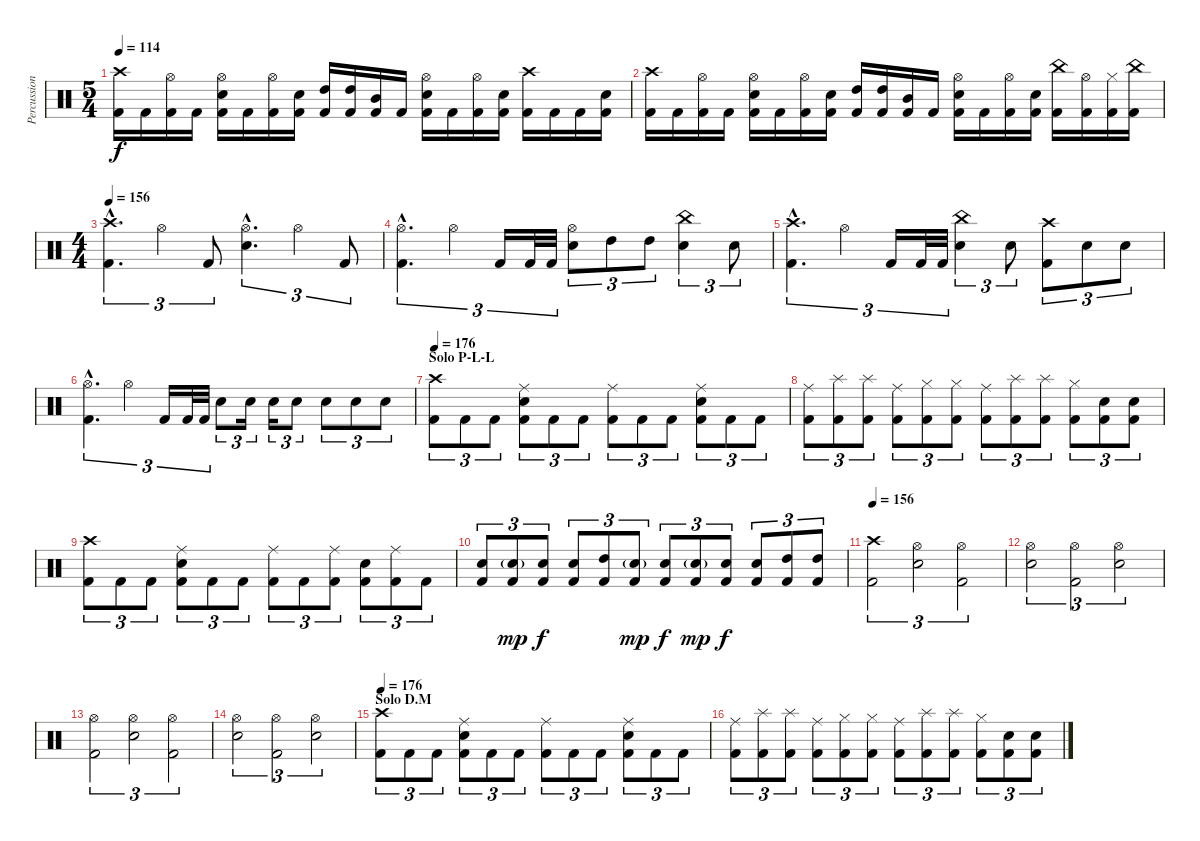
\track ("Percussion" "Percussion") {instrument percussion}
\staff {score}
\articulation defaults
\ts (5 4)
\tempo 114
\clef neutral
\ks c
("Crash high (hit)" "Kick (hit) 2").16{dy f} "Kick (hit) 2".16 ("Hi-Hat (open)" "Kick (hit) 2").16 "Kick (hit) 2".16 ("Hi-Hat (open)" "Electric Snare (hit)" "Kick (hit) 2").16 "Kick (hit) 2".16 ("Hi-Hat (open)" "Kick (hit) 2").16 ("Electric Snare (hit)" "Kick (hit) 2").16 ("High Tom (hit)" "Kick (hit) 2").16 ("High Tom (hit)" "Kick (hit) 2").16 ("Mid Tom (hit)" "Kick (hit) 2").16 "Kick (hit) 2".16 ("Hi-Hat (open)" "Electric Snare (hit)" "Kick (hit) 2").16 "Kick (hit) 2".16 ("Hi-Hat (open)" "Kick (hit) 2").16 ("Electric Snare (hit)" "Kick (hit) 2").16 ("Crash high (hit)" "Kick (hit) 2").16 "Kick (hit) 2".16 "Kick (hit) 2".16 ("Electric Snare (hit)" "Kick (hit) 2").16 |
("Crash high (hit)" "Kick (hit) 2").16 "Kick (hit) 2".16 ("Hi-Hat (open)" "Kick (hit) 2").16 "Kick (hit) 2".16 ("Hi-Hat (open)" "Electric Snare (hit)" "Kick (hit) 2").16 "Kick (hit) 2".16 ("Hi-Hat (open)" "Kick (hit) 2").16 ("Electric Snare (hit)" "Kick (hit) 2").16 ("High Tom (hit)" "Kick (hit) 2").16 ("High Tom (hit)" "Kick (hit) 2").16 ("Mid Tom (hit)" "Kick (hit) 2").16 "Kick (hit) 2".16 ("Hi-Hat (open)" "Electric Snare (hit)" "Kick (hit) 2").16 "Kick (hit) 2".16 ("Hi-Hat (open)" "Kick (hit) 2").16 ("Electric Snare (hit)" "Kick (hit) 2").16 ("China (hit)" "Kick (hit) 2").16 ("Hi-Hat (open)" "Kick (hit) 2").16 ("Hi-Hat (closed)" "Kick (hit) 2").16 ("China (hit)" "Kick (hit) 2").16 |
\ts (4 4)
\tempo 156
("Crash high (hit)"{hac} "Kick (hit) 2"{hac}).4{d tu (3 2)} "Hi-Hat (open)".4{tu (3 2)} "Kick (hit) 2".8{tu (3 2)} ("Hi-Hat (open)"{hac} "Electric Snare (hit)"{hac}).4{d tu (3 2)} "Hi-Hat (open)".4{tu (3 2)} "Kick (hit) 2".8{tu (3 2)} |
("Hi-Hat (open)"{hac} "Kick (hit) 2"{hac}).4{d tu (3 2)} "Hi-Hat (open)".4{tu (3 2)} "Kick (hit) 2".16{tu (3 2)} "Kick (hit) 2".32{tu (3 2)} "Kick (hit) 2".32{tu (3 2)} ("Hi-Hat (open)" "Electric Snare (hit)").8{tu (3 2)} "High Tom (hit)".8{tu (3 2)} "High Tom (hit)".8{tu (3 2)} ("China (hit)" "Electric Snare (hit)").4{tu (3 2)} "Electric Snare (hit)".8{tu (3 2)} |
("Crash high (hit)"{hac} "Kick (hit) 2"{hac}).4{d tu (3 2)} "Hi-Hat (open)".4{tu (3 2)} "Kick (hit) 2".16{tu (3 2)} "Kick (hit) 2".32{tu (3 2)} "Kick (hit) 2".32{tu (3 2)} ("China (hit)" "Electric Snare (hit)").4{tu (3 2)} "Electric Snare (hit)".8{tu (3 2)} ("Crash high (hit)" "Kick (hit) 2").8{tu (3 2)} "Electric Snare (hit)".8{tu (3 2)} "Electric Snare (hit)".8{tu (3 2)} |
("Hi-Hat (open)"{hac} "Kick (hit) 2"{hac}).4{d tu (3 2)} "Hi-Hat (open)".4{tu (3 2)} "Kick (hit) 2".16{tu (3 2)} "Kick (hit) 2".32{tu (3 2)} "Kick (hit) 2".32{tu (3 2)} "Electric Snare (hit)".8{tu (3 2)} "Electric Snare (hit)".16{tu (3 2)} "Electric Snare (hit)".16{tu (3 2)} "Electric Snare (hit)".8{tu (3 2)} "Electric Snare (hit)".8{tu (3 2)} "Electric Snare (hit)".8{tu (3 2)} "Electric Snare (hit)".8{tu (3 2)} |
\section ("" "Solo P-L-L")
\tempo 176
("Crash high (hit)" "Kick (hit) 2").8{tu (3 2)} "Kick (hit) 2".8{tu (3 2)} "Kick (hit) 2".8{tu (3 2)} ("Ride (middle)" "Electric Snare (hit)" "Kick (hit) 2").8{tu (3 2)} "Kick (hit) 2".8{tu (3 2)} "Kick (hit) 2".8{tu (3 2)} ("Ride (middle)" "Kick (hit) 2").8{tu (3 2)} "Kick (hit) 2".8{tu (3 2)} "Kick (hit) 2".8{tu (3 2)} ("Ride (middle)" "Electric Snare (hit)" "Kick (hit) 2").8{tu (3 2)} "Kick (hit) 2".8{tu (3 2)} "Kick (hit) 2".8{tu (3 2)} |
("Ride (middle)" "Kick (hit) 2").8{tu (3 2)} ("Splash (hit)" "Kick (hit) 2").8{tu (3 2)} ("Splash (hit)" "Kick (hit) 2").8{tu (3 2)} ("Ride (middle)" "Kick (hit) 2").8{tu (3 2)} ("Hi-Hat (closed)" "Kick (hit) 2").8{tu (3 2)} ("Hi-Hat (closed)" "Kick (hit) 2").8{tu (3 2)} ("Ride (middle)" "Kick (hit) 2").8{tu (3 2)} ("Splash (hit)" "Kick (hit) 2").8{tu (3 2)} ("Splash (hit)" "Kick (hit) 2").8{tu (3 2)} ("Hi-Hat (closed)" "Kick (hit) 2").8{tu (3 2)} ("Electric Snare (hit)" "Kick (hit) 2").8{tu (3 2)} ("Electric Snare (hit)" "Kick (hit) 2").8{tu (3 2)} |
("Crash high (hit)" "Kick (hit) 2").8{tu (3 2)} "Kick (hit) 2".8{tu (3 2)} "Kick (hit) 2".8{tu (3 2)} ("Ride (middle)" "Electric Snare (hit)" "Kick (hit) 2").8{tu (3 2)} "Kick (hit) 2".8{tu (3 2)} "Kick (hit) 2".8{tu (3 2)} ("Ride (middle)" "Kick (hit) 2").8{tu (3 2)} "Kick (hit) 2".8{tu (3 2)} ("Ride (middle)" "Kick (hit) 2").8{tu (3 2)} ("Electric Snare (hit)" "Kick (hit) 2").8{tu (3 2)} ("Ride (middle)" "Kick (hit) 2").8{tu (3 2)} "Kick (hit) 2".8{tu (3 2)} |
("Electric Snare (hit)" "Kick (hit) 2").8{tu (3 2)} ("Electric Snare (hit)"{g} "Kick (hit) 2").8{tu (3 2) dy mp} ("Electric Snare (hit)" "Kick (hit) 2").8{tu (3 2) dy f} ("Electric Snare (hit)" "Kick (hit) 2").8{tu (3 2)} ("High Tom (hit)" "Kick (hit) 2").8{tu (3 2)} ("Electric Snare (hit)"{g} "Kick (hit) 2").8{tu (3 2) dy mp} ("Electric Snare (hit)" "Kick (hit) 2").8{tu (3 2) dy f} ("Electric Snare (hit)"{g} "Kick (hit) 2").8{tu (3 2) dy mp} ("Electric Snare (hit)" "Kick (hit) 2").8{tu (3 2) dy f} ("Electric Snare (hit)" "Kick (hit) 2").8{tu (3 2)} ("High Tom (hit)" "Kick (hit) 2").8{tu (3 2)} ("High Tom (hit)" "Kick (hit) 2").8{tu (3 2)} |
\tempo 156
("Crash high (hit)" "Kick (hit) 2").2{tu (3 2)} ("Hi-Hat (open)" "Electric Snare (hit)").2{tu (3 2)} ("Hi-Hat (open)" "Kick (hit) 2").2{tu (3 2)} |
("Hi-Hat (open)" "Electric Snare (hit)").2{tu (3 2)} ("Hi-Hat (open)" "Kick (hit) 2").2{tu (3 2)} ("Hi-Hat (open)" "Electric Snare (hit)").2{tu (3 2)} |
("Hi-Hat (open)" "Kick (hit) 2").2{tu (3 2)} ("Hi-Hat (open)" "Electric Snare (hit)").2{tu (3 2)} ("Hi-Hat (open)" "Kick (hit) 2").2{tu (3 2)} |
("Hi-Hat (open)" "Electric Snare (hit)").2{tu (3 2)} ("Hi-Hat (open)" "Kick (hit) 2").2{tu (3 2)} ("Hi-Hat (open)" "Electric Snare (hit)").2{tu (3 2)} |
\section ("" "Solo D.M")
\tempo 176
("Crash high (hit)" "Kick (hit) 2").8{tu (3 2)} "Kick (hit) 2".8{tu (3 2)} "Kick (hit) 2".8{tu (3 2)} ("Ride (middle)" "Electric Snare (hit)" "Kick (hit) 2").8{tu (3 2)} "Kick (hit) 2".8{tu (3 2)} "Kick (hit) 2".8{tu (3 2)} ("Ride (middle)" "Kick (hit) 2").8{tu (3 2)} "Kick (hit) 2".8{tu (3 2)} "Kick (hit) 2".8{tu (3 2)} ("Ride (middle)" "Electric Snare (hit)" "Kick (hit) 2").8{tu (3 2)} "Kick (hit) 2".8{tu (3 2)} "Kick (hit) 2".8{tu (3 2)} |
("Ride (middle)" "Kick (hit) 2").8{tu (3 2)} ("Splash (hit)" "Kick (hit) 2").8{tu (3 2)} ("Splash (hit)" "Kick (hit) 2").8{tu (3 2)} ("Ride (middle)" "Kick (hit) 2").8{tu (3 2)} ("Hi-Hat (closed)" "Kick (hit) 2").8{tu (3 2)} ("Hi-Hat (closed)" "Kick (hit) 2").8{tu (3 2)} ("Ride (middle)" "Kick (hit) 2").8{tu (3 2)} ("Splash (hit)" "Kick (hit) 2").8{tu (3 2)} ("Splash (hit)" "Kick (hit) 2").8{tu (3 2)} ("Hi-Hat (closed)" "Kick (hit) 2").8{tu (3 2)} ("Electric Snare (hit)" "Kick (hit) 2").8{tu (3 2)} ("Electric Snare (hit)" "Kick (hit) 2").8{tu (3 2)}
